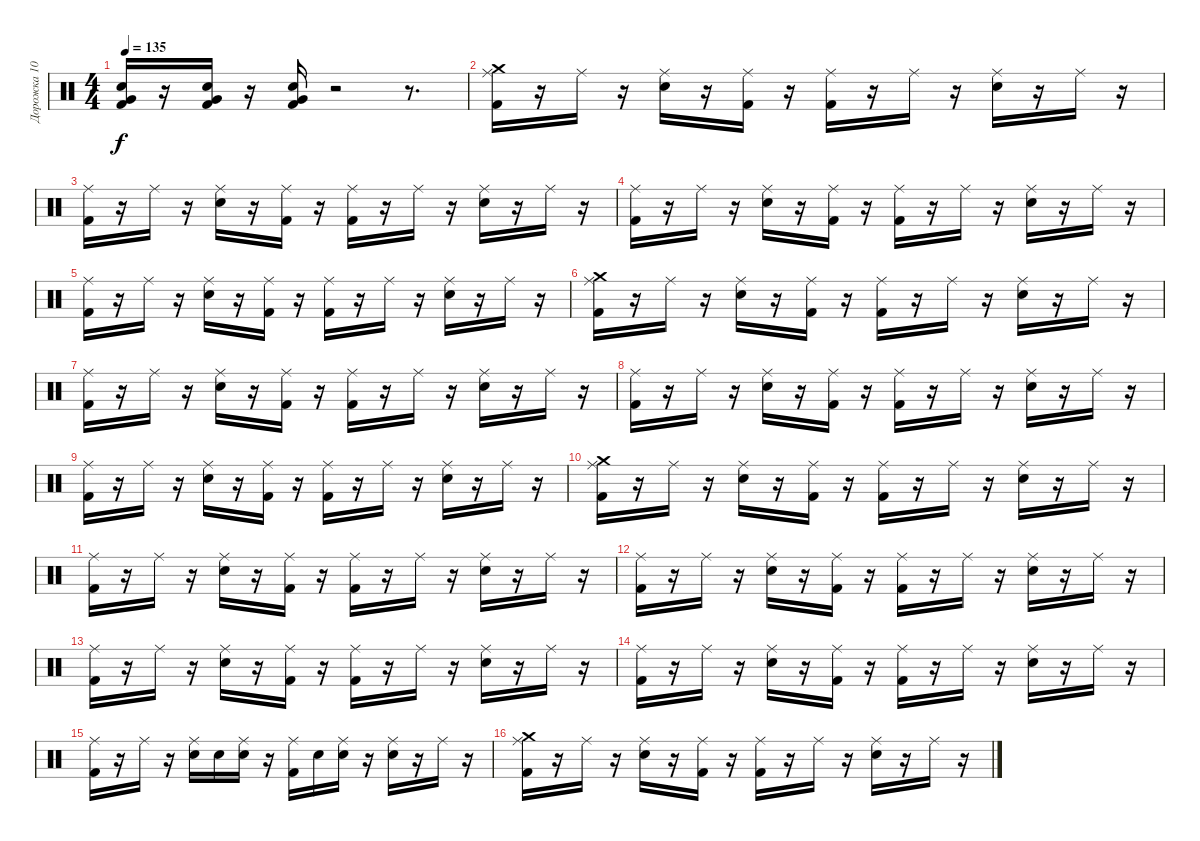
\track ("Дорожка 10" "Дорожка 10") {instrument percussion}
\staff {score}
\articulation defaults
\ts (4 4)
\tempo 135
\clef neutral
\ks c
("Snare (hit) 2" "Very Low Tom (hit)" "Kick (hit) 2").16{dy f} r.16 ("Very Low Tom (hit)" "Kick (hit) 2" "Electric Snare (hit)").16 r.16 ("Kick (hit) 2" "Electric Snare (hit)" "Very Low Tom (hit)").16 r.2 r.8{d} |
("Ride (middle)" "Crash medium (hit)" "Kick (hit) 2").16 r.16 "Ride (middle)".16 r.16 ("Ride (middle)" "Electric Snare (hit)").16 r.16 ("Ride (middle)" "Kick (hit) 2").16 r.16 ("Ride (middle)" "Kick (hit) 2").16 r.16 "Ride (middle)".16 r.16 ("Ride (middle)" "Electric Snare (hit)").16 r.16 "Ride (middle)".16 r.16 |
("Kick (hit) 2" "Ride (middle)").16 r.16 "Ride (middle)".16 r.16 ("Electric Snare (hit)" "Ride (middle)").16 r.16 ("Kick (hit) 2" "Ride (middle)").16 r.16 ("Kick (hit) 2" "Ride (middle)").16 r.16 "Ride (middle)".16 r.16 ("Electric Snare (hit)" "Ride (middle)").16 r.16 "Ride (middle)".16 r.16 |
("Kick (hit) 2" "Ride (middle)").16 r.16 "Ride (middle)".16 r.16 ("Electric Snare (hit)" "Ride (middle)").16 r.16 ("Kick (hit) 2" "Ride (middle)").16 r.16 ("Kick (hit) 2" "Ride (middle)").16 r.16 "Ride (middle)".16 r.16 ("Electric Snare (hit)" "Ride (middle)").16 r.16 "Ride (middle)".16 r.16 |
("Kick (hit) 2" "Ride (middle)").16 r.16 "Ride (middle)".16 r.16 ("Electric Snare (hit)" "Ride (middle)").16 r.16 ("Kick (hit) 2" "Ride (middle)").16 r.16 ("Kick (hit) 2" "Ride (middle)").16 r.16 "Ride (middle)".16 r.16 ("Electric Snare (hit)" "Ride (middle)").16 r.16 "Ride (middle)".16 r.16 |
("Crash medium (hit)" "Kick (hit) 2" "Ride (middle)").16 r.16 "Ride (middle)".16 r.16 ("Electric Snare (hit)" "Ride (middle)").16 r.16 ("Kick (hit) 2" "Ride (middle)").16 r.16 ("Kick (hit) 2" "Ride (middle)").16 r.16 "Ride (middle)".16 r.16 ("Electric Snare (hit)" "Ride (middle)").16 r.16 "Ride (middle)".16 r.16 |
("Kick (hit) 2" "Ride (middle)").16 r.16 "Ride (middle)".16 r.16 ("Electric Snare (hit)" "Ride (middle)").16 r.16 ("Kick (hit) 2" "Ride (middle)").16 r.16 ("Kick (hit) 2" "Ride (middle)").16 r.16 "Ride (middle)".16 r.16 ("Electric Snare (hit)" "Ride (middle)").16 r.16 "Ride (middle)".16 r.16 |
("Kick (hit) 2" "Ride (middle)").16 r.16 "Ride (middle)".16 r.16 ("Electric Snare (hit)" "Ride (middle)").16 r.16 ("Kick (hit) 2" "Ride (middle)").16 r.16 ("Kick (hit) 2" "Ride (middle)").16 r.16 "Ride (middle)".16 r.16 ("Electric Snare (hit)" "Ride (middle)").16 r.16 "Ride (middle)".16 r.16 |
("Ride (middle)" "Kick (hit) 2").16 r.16 "Ride (middle)".16 r.16 ("Ride (middle)" "Electric Snare (hit)").16 r.16 ("Ride (middle)" "Kick (hit) 2").16 r.16 ("Ride (middle)" "Kick (hit) 2").16 r.16 "Ride (middle)".16 r.16 ("Ride (middle)" "Electric Snare (hit)").16 r.16 "Ride (middle)".16 r.16 |
("Ride (middle)" "Crash medium (hit)" "Kick (hit) 2").16 r.16 "Ride (middle)".16 r.16 ("Ride (middle)" "Electric Snare (hit)").16 r.16 ("Ride (middle)" "Kick (hit) 2").16 r.16 ("Ride (middle)" "Kick (hit) 2").16 r.16 "Ride (middle)".16 r.16 ("Ride (middle)" "Electric Snare (hit)").16 r.16 "Ride (middle)".16 r.16 |
("Kick (hit) 2" "Ride (middle)").16 r.16 "Ride (middle)".16 r.16 ("Electric Snare (hit)" "Ride (middle)").16 r.16 ("Kick (hit) 2" "Ride (middle)").16 r.16 ("Kick (hit) 2" "Ride (middle)").16 r.16 "Ride (middle)".16 r.16 ("Electric Snare (hit)" "Ride (middle)").16 r.16 "Ride (middle)".16 r.16 |
("Kick (hit) 2" "Ride (middle)").16 r.16 "Ride (middle)".16 r.16 ("Electric Snare (hit)" "Ride (middle)").16 r.16 ("Kick (hit) 2" "Ride (middle)").16 r.16 ("Kick (hit) 2" "Ride (middle)").16 r.16 "Ride (middle)".16 r.16 ("Electric Snare (hit)" "Ride (middle)").16 r.16 "Ride (middle)".16 r.16 |
("Kick (hit) 2" "Ride (middle)").16 r.16 "Ride (middle)".16 r.16 ("Electric Snare (hit)" "Ride (middle)").16 r.16 ("Kick (hit) 2" "Ride (middle)").16 r.16 ("Kick (hit) 2" "Ride (middle)").16 r.16 "Ride (middle)".16 r.16 ("Electric Snare (hit)" "Ride (middle)").16 r.16 "Ride (middle)".16 r.16 |
("Kick (hit) 2" "Ride (middle)").16 r.16 "Ride (middle)".16 r.16 ("Electric Snare (hit)" "Ride (middle)").16 r.16 ("Kick (hit) 2" "Ride (middle)").16 r.16 ("Kick (hit) 2" "Ride (middle)").16 r.16 "Ride (middle)".16 r.16 ("Electric Snare (hit)" "Ride (middle)").16 r.16 "Ride (middle)".16 r.16 |
("Ride (middle)" "Kick (hit) 2").16 r.16 "Ride (middle)".16 r.16 ("Ride (middle)" "Electric Snare (hit)").16 "Electric Snare (hit)".16 ("Ride (middle)" "Electric Snare (hit)").16 r.16 ("Ride (middle)" "Kick (hit) 2").16 "Electric Snare (hit)".16 ("Ride (middle)" "Snare (hit) 2").16 r.16 ("Ride (middle)" "Electric Snare (hit)").16 r.16 "Ride (middle)".16 r.16 |
("Ride (middle)" "Crash medium (hit)" "Kick (hit) 2").16 r.16 "Ride (middle)".16 r.16 ("Ride (middle)" "Electric Snare (hit)").16 r.16 ("Ride (middle)" "Kick (hit) 2").16 r.16 ("Ride (middle)" "Kick (hit) 2").16 r.16 "Ride (middle)".16 r.16 ("Ride (middle)" "Electric Snare (hit)").16 r.16 "Ride (middle)".16 r.16
